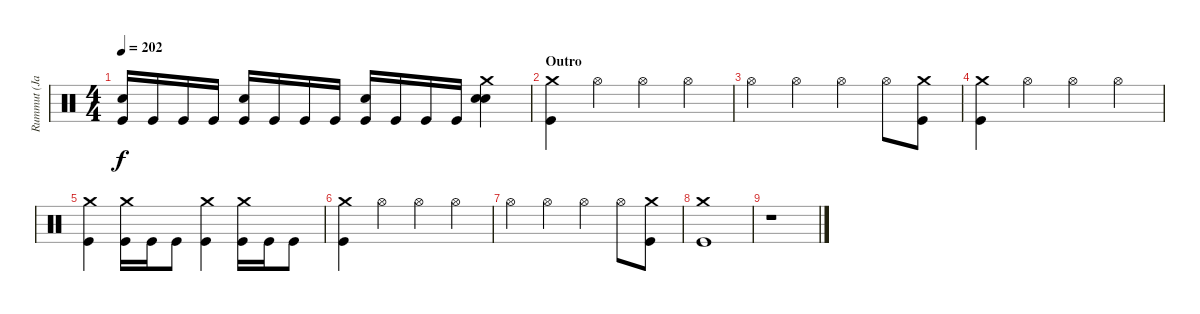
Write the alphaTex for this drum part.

\track ("Rummut (Janne)" "Rummut (Ja") {instrument percussion}
\staff {score}
\articulation defaults
\ts (4 4)
\tempo 202
\clef neutral
\ks c
("Snare (hit) 2" "Kick (hit)").16{dy f} "Kick (hit)".16 "Kick (hit)".16 "Kick (hit)".16 ("Snare (hit) 2" "Kick (hit)").16 "Kick (hit)".16 "Kick (hit)".16 "Kick (hit)".16 ("Snare (hit) 2" "Kick (hit)").16 "Kick (hit)".16 "Kick (hit)".16 "Kick (hit)".16 ("Crash medium (hit)" "Snare (hit) 2" "Snare (hit) 2").4 |
\section ("" "Outro")
("Crash medium (hit)" "Kick (hit)").4 "Hi-Hat (open)".4 "Hi-Hat (open)".4 "Hi-Hat (open)".4 |
"Hi-Hat (open)".4 "Hi-Hat (open)".4 "Hi-Hat (open)".4 "Hi-Hat (open)".8 ("Crash medium (hit)" "Kick (hit)").8 |
("Crash medium (hit)" "Kick (hit)").4 "Hi-Hat (open)".4 "Hi-Hat (open)".4 "Hi-Hat (open)".4 |
("Crash medium (hit)" "Kick (hit)").4 ("Crash medium (hit)" "Kick (hit)").16 "Kick (hit)".16 "Kick (hit)".8 ("Crash medium (hit)" "Kick (hit)").4 ("Crash medium (hit)" "Kick (hit)").16 "Kick (hit)".16 "Kick (hit)".8 |
("Crash medium (hit)" "Kick (hit)").4 "Hi-Hat (open)".4 "Hi-Hat (open)".4 "Hi-Hat (open)".4 |
"Hi-Hat (open)".4 "Hi-Hat (open)".4 "Hi-Hat (open)".4 "Hi-Hat (open)".8 ("Crash medium (hit)" "Kick (hit)").8 |
("Crash medium (hit)" "Kick (hit)").1 |
r.1
